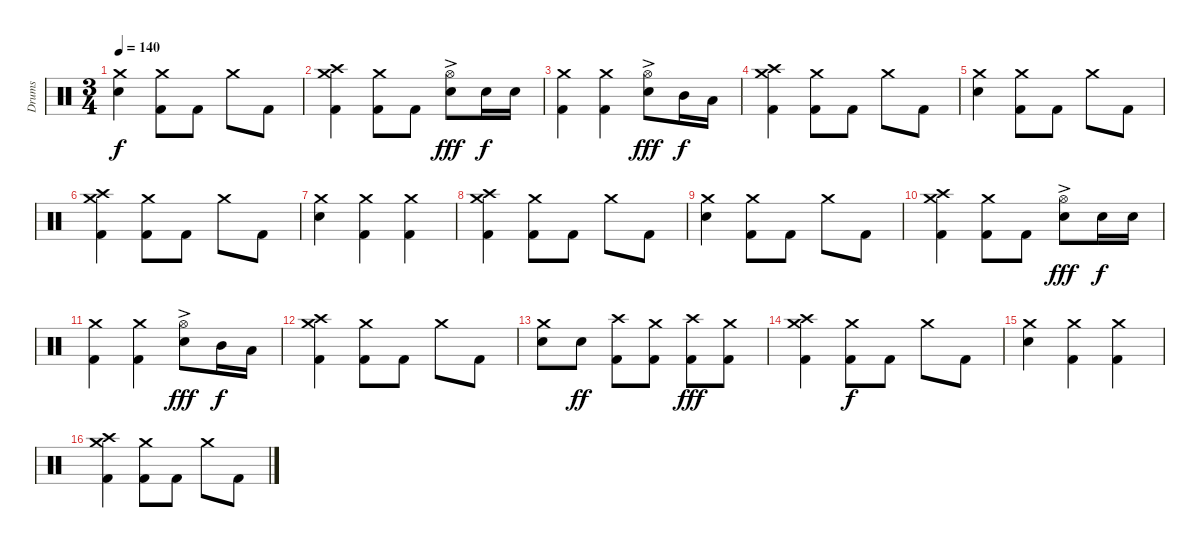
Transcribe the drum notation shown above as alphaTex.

\track ("Drums" "Drums") {instrument percussion}
\staff {score}
\articulation defaults
\ts (3 4)
\tempo 140
\clef neutral
\ks c
("Crash medium (hit)" "Snare (hit) 2").4{dy f} ("Crash medium (hit)" "Kick (hit) 2").8 "Kick (hit) 2".8 "Crash medium (hit)".8 "Kick (hit) 2".8 |
("Crash high (hit)" "Crash medium (hit)" "Kick (hit) 2").4 ("Crash medium (hit)" "Kick (hit) 2").8 "Kick (hit) 2".8 ("Hi-Hat (open)"{ac} "Snare (hit) 2"{ac}).8{dy fff} "Snare (hit) 2".16{dy f} "Snare (hit) 2".16 |
("Crash medium (hit)" "Kick (hit) 2").4 ("Crash medium (hit)" "Kick (hit) 2").4 ("Hi-Hat (open)"{ac} "Snare (hit) 2"{ac}).8{dy fff} "Mid Tom (hit)".16{dy f} "Low Tom (hit)".16 |
("Crash high (hit)" "Crash medium (hit)" "Kick (hit) 2").4 ("Crash medium (hit)" "Kick (hit) 2").8 "Kick (hit) 2".8 "Crash medium (hit)".8 "Kick (hit) 2".8 |
("Crash medium (hit)" "Snare (hit) 2").4 ("Crash medium (hit)" "Kick (hit) 2").8 "Kick (hit) 2".8 "Crash medium (hit)".8 "Kick (hit) 2".8 |
("Crash high (hit)" "Crash medium (hit)" "Kick (hit) 2").4 ("Crash medium (hit)" "Kick (hit) 2").8 "Kick (hit) 2".8 "Crash medium (hit)".8 "Kick (hit) 2".8 |
("Crash medium (hit)" "Snare (hit) 2").4 ("Crash medium (hit)" "Kick (hit) 2").4 ("Crash medium (hit)" "Kick (hit) 2").4 |
("Crash high (hit)" "Crash medium (hit)" "Kick (hit) 2").4 ("Crash medium (hit)" "Kick (hit) 2").8 "Kick (hit) 2".8 "Crash medium (hit)".8 "Kick (hit) 2".8 |
("Crash medium (hit)" "Snare (hit) 2").4 ("Crash medium (hit)" "Kick (hit) 2").8 "Kick (hit) 2".8 "Crash medium (hit)".8 "Kick (hit) 2".8 |
("Crash high (hit)" "Crash medium (hit)" "Kick (hit) 2").4 ("Crash medium (hit)" "Kick (hit) 2").8 "Kick (hit) 2".8 ("Hi-Hat (open)"{ac} "Snare (hit) 2"{ac}).8{dy fff} "Snare (hit) 2".16{dy f} "Snare (hit) 2".16 |
("Crash medium (hit)" "Kick (hit) 2").4 ("Crash medium (hit)" "Kick (hit) 2").4 ("Hi-Hat (open)"{ac} "Snare (hit) 2"{ac}).8{dy fff} "Mid Tom (hit)".16{dy f} "Low Tom (hit)".16 |
("Crash high (hit)" "Crash medium (hit)" "Kick (hit) 2").4 ("Crash medium (hit)" "Kick (hit) 2").8 "Kick (hit) 2".8 "Crash medium (hit)".8 "Kick (hit) 2".8 |
("Crash medium (hit)" "Snare (hit) 2").8 "Snare (hit) 2".8{dy ff} ("Crash high (hit)" "Kick (hit) 2").8 ("Crash medium (hit)" "Kick (hit) 2").8 ("Crash high (hit)" "Kick (hit) 2").8{dy fff} ("Crash medium (hit)" "Kick (hit) 2").8 |
("Crash high (hit)" "Crash medium (hit)" "Kick (hit) 2").4 ("Crash medium (hit)" "Kick (hit) 2").8{dy f} "Kick (hit) 2".8 "Crash medium (hit)".8 "Kick (hit) 2".8 |
("Crash medium (hit)" "Snare (hit) 2").4 ("Crash medium (hit)" "Kick (hit) 2").4 ("Crash medium (hit)" "Kick (hit) 2").4 |
("Crash high (hit)" "Crash medium (hit)" "Kick (hit) 2").4 ("Crash medium (hit)" "Kick (hit) 2").8 "Kick (hit) 2".8 "Crash medium (hit)".8 "Kick (hit) 2".8
